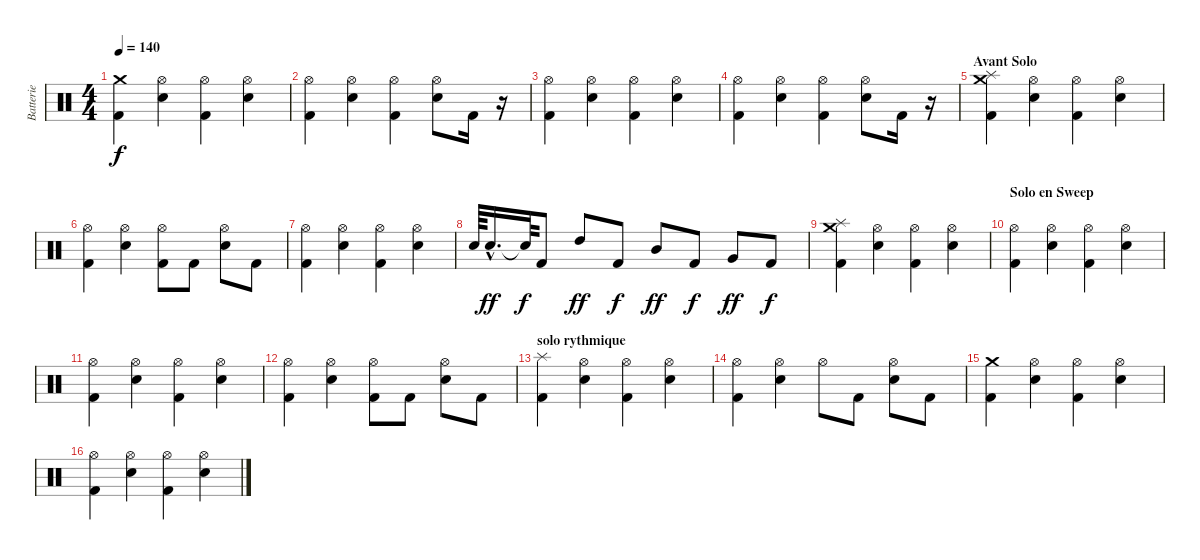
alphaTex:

\track ("Batterie" "Batterie") {instrument percussion}
\staff {score}
\articulation defaults
\ts (4 4)
\tempo 140
\clef neutral
\ks c
("Crash medium (hit)" "Kick (hit) 2").4{dy f} ("Snare (hit) 2" "Hi-Hat (open)").4 ("Kick (hit) 2" "Hi-Hat (open)").4 ("Hi-Hat (open)" "Snare (hit) 2").4 |
("Kick (hit) 2" "Hi-Hat (open)").4 ("Hi-Hat (open)" "Snare (hit) 2").4 ("Kick (hit) 2" "Hi-Hat (open)").4 ("Snare (hit) 2" "Hi-Hat (open)").8 "Kick (hit) 2".16 r.16 |
("Hi-Hat (open)" "Kick (hit) 2").4 ("Hi-Hat (open)" "Snare (hit) 2").4 ("Hi-Hat (open)" "Kick (hit) 2").4 ("Snare (hit) 2" "Hi-Hat (open)").4 |
("Kick (hit) 2" "Hi-Hat (open)").4 ("Hi-Hat (open)" "Snare (hit) 2").4 ("Hi-Hat (open)" "Kick (hit) 2").4 ("Snare (hit) 2" "Hi-Hat (open)").8 "Kick (hit) 2".16 r.16 |
\section ("" "Avant Solo")
("Splash (hit)" "Crash medium (hit)" "Kick (hit) 2").4 ("Snare (hit) 2" "Hi-Hat (open)").4 ("Kick (hit) 2" "Hi-Hat (open)").4 ("Snare (hit) 2" "Hi-Hat (open)").4 |
("Hi-Hat (open)" "Kick (hit) 2").4 ("Hi-Hat (open)" "Snare (hit) 2").4 ("Kick (hit) 2" "Hi-Hat (open)").8 "Kick (hit) 2".8 ("Snare (hit) 2" "Hi-Hat (open)").8 "Kick (hit) 2".8 |
("Hi-Hat (open)" "Kick (hit) 2").4 ("Hi-Hat (open)" "Snare (hit) 2").4 ("Kick (hit) 2" "Hi-Hat (open)").4 ("Snare (hit) 2" "Hi-Hat (open)").4 |
"Snare (hit) 2".64 "Snare (hit) 2"{hac}.16{d dy ff} "Snare (hit)"{t}.64{dy f} "Kick (hit) 2".8 "High Tom (hit)".8{dy ff} "Kick (hit) 2".8{dy f} "Mid Tom (hit)".8{dy ff} "Kick (hit) 2".8{dy f} "Very Low Tom (hit)".8{dy ff} "Kick (hit) 2".8{dy f} |
("Crash medium (hit)" "Kick (hit) 2" "Splash (hit)").4 ("Snare (hit) 2" "Hi-Hat (open)").4 ("Hi-Hat (open)" "Kick (hit) 2").4 ("Hi-Hat (open)" "Snare (hit) 2").4 |
\section ("" "Solo en Sweep")
("Kick (hit) 2" "Hi-Hat (open)").4 ("Snare (hit) 2" "Hi-Hat (open)").4 ("Kick (hit) 2" "Hi-Hat (open)").4 ("Snare (hit) 2" "Hi-Hat (open)").4 |
("Kick (hit) 2" "Hi-Hat (open)").4 ("Hi-Hat (open)" "Snare (hit) 2").4 ("Kick (hit) 2" "Hi-Hat (open)").4 ("Hi-Hat (open)" "Snare (hit) 2").4 |
("Kick (hit) 2" "Hi-Hat (open)").4 ("Snare (hit) 2" "Hi-Hat (open)").4 ("Hi-Hat (open)" "Kick (hit) 2").8 "Kick (hit) 2".8 ("Hi-Hat (open)" "Snare (hit) 2").8 "Kick (hit) 2".8 |
\section ("" "solo rythmique")
("Splash (hit)" "Kick (hit) 2").4 ("Snare (hit) 2" "Hi-Hat (open)").4 ("Hi-Hat (open)" "Kick (hit) 2").4 ("Snare (hit) 2" "Hi-Hat (open)").4 |
("Hi-Hat (open)" "Kick (hit) 2").4 ("Hi-Hat (open)" "Snare (hit) 2").4 "Hi-Hat (open)".8 "Kick (hit) 2".8 ("Snare (hit) 2" "Hi-Hat (open)").8 "Kick (hit) 2".8 |
("Kick (hit) 2" "Crash medium (hit)").4 ("Snare (hit) 2" "Hi-Hat (open)").4 ("Hi-Hat (open)" "Kick (hit) 2").4 ("Snare (hit) 2" "Hi-Hat (open)").4 |
("Hi-Hat (open)" "Kick (hit) 2").4 ("Hi-Hat (open)" "Snare (hit) 2").4 ("Hi-Hat (open)" "Kick (hit) 2").4 ("Hi-Hat (open)" "Snare (hit) 2").4
